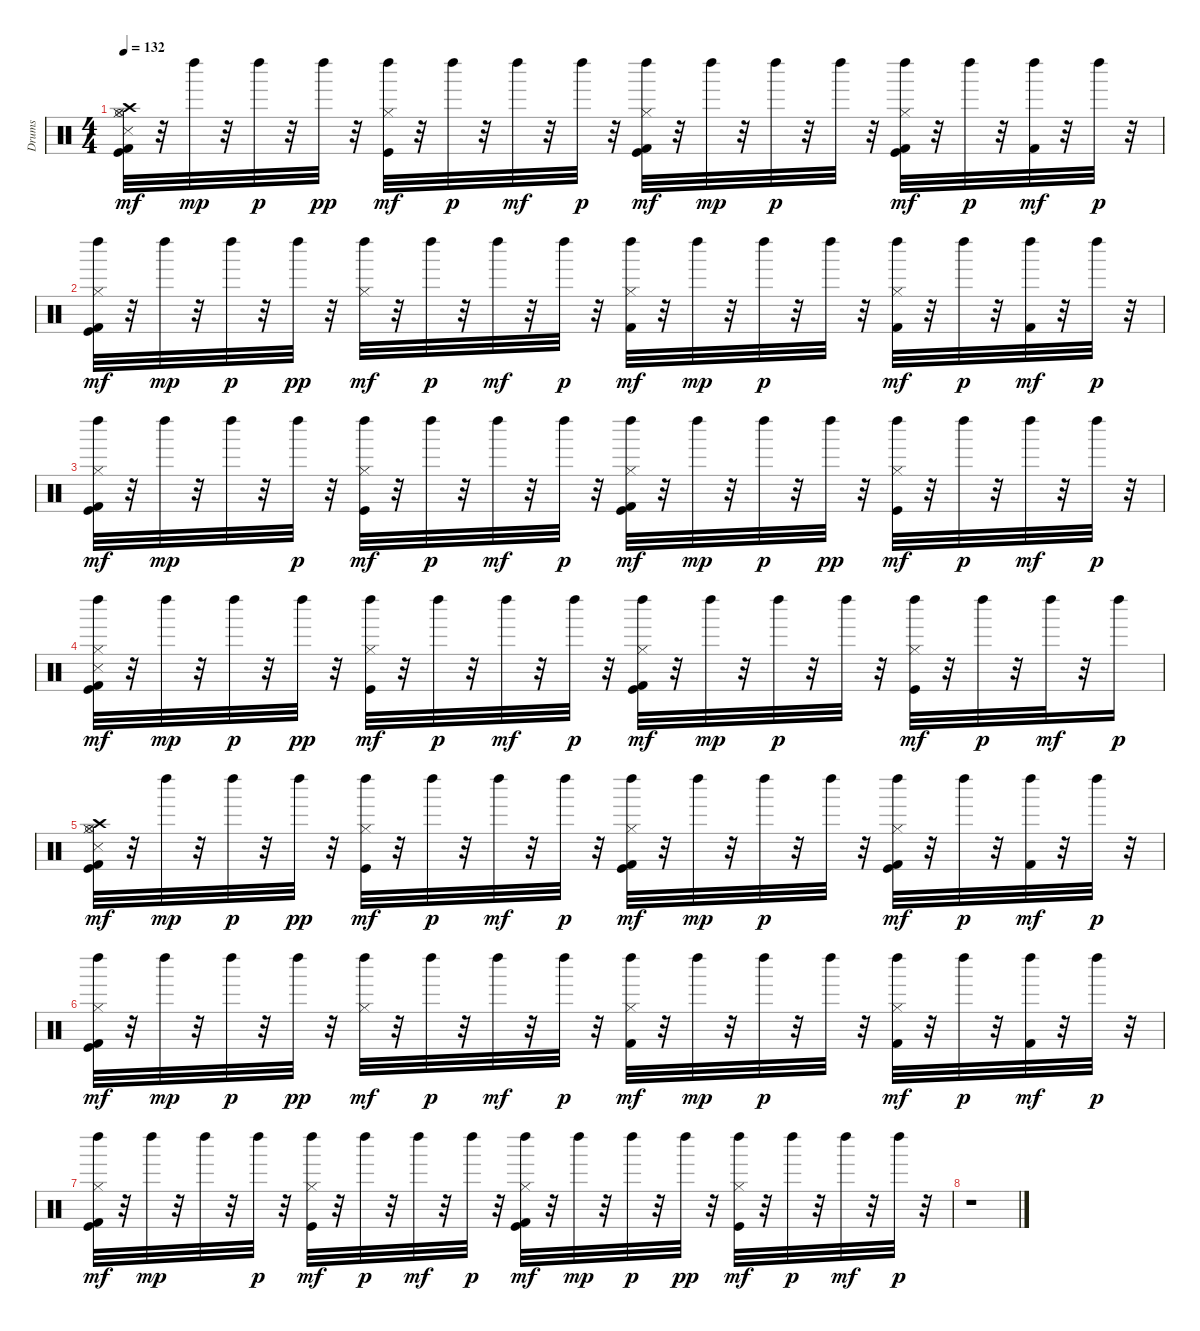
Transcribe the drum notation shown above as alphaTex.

\track ("Drums" "Drums") {instrument percussion}
\staff {score}
\articulation defaults
\ts (4 4)
\tempo 132
\clef neutral
\ks c
("Kick (hit)" "Kick (hit) 2" "Snare (side stick) 3" "Hi-Hat (closed)" "Hi-Hat (open)" "Crash high (hit)").32{dy mf} r.32 "Left Maraca (hit)".32{dy mp} r.32 "Left Maraca (hit)".32{dy p} r.32 "Left Maraca (hit)".32{dy pp} r.32 ("Kick (hit)" "Hi-Hat (closed)" "Left Maraca (hit)").32{dy mf} r.32 "Left Maraca (hit)".32{dy p} r.32 "Left Maraca (hit)".32{dy mf} r.32 "Left Maraca (hit)".32{dy p} r.32 ("Kick (hit)" "Kick (hit) 2" "Hi-Hat (closed)" "Left Maraca (hit)").32{dy mf} r.32 "Left Maraca (hit)".32{dy mp} r.32 "Left Maraca (hit)".32{dy p} r.32 "Left Maraca (hit)".32 r.32 ("Kick (hit)" "Kick (hit) 2" "Hi-Hat (closed)" "Left Maraca (hit)").32{dy mf} r.32 "Left Maraca (hit)".32{dy p} r.32 ("Kick (hit) 2" "Left Maraca (hit)").32{dy mf} r.32 "Left Maraca (hit)".32{dy p} r.32 |
("Kick (hit)" "Kick (hit) 2" "Hi-Hat (closed)" "Left Maraca (hit)").32{dy mf} r.32 "Left Maraca (hit)".32{dy mp} r.32 "Left Maraca (hit)".32{dy p} r.32 "Left Maraca (hit)".32{dy pp} r.32 ("Hi-Hat (closed)" "Left Maraca (hit)").32{dy mf} r.32 "Left Maraca (hit)".32{dy p} r.32 "Left Maraca (hit)".32{dy mf} r.32 "Left Maraca (hit)".32{dy p} r.32 ("Kick (hit) 2" "Hi-Hat (closed)" "Left Maraca (hit)").32{dy mf} r.32 "Left Maraca (hit)".32{dy mp} r.32 "Left Maraca (hit)".32{dy p} r.32 "Left Maraca (hit)".32 r.32 ("Kick (hit) 2" "Hi-Hat (closed)" "Left Maraca (hit)").32{dy mf} r.32 "Left Maraca (hit)".32{dy p} r.32 ("Kick (hit) 2" "Left Maraca (hit)").32{dy mf} r.32 "Left Maraca (hit)".32{dy p} r.32 |
("Kick (hit)" "Kick (hit) 2" "Hi-Hat (closed)" "Left Maraca (hit)").32{dy mf} r.32 "Left Maraca (hit)".32{dy mp} r.32 "Left Maraca (hit)".32 r.32 "Left Maraca (hit)".32{dy p} r.32 ("Kick (hit)" "Hi-Hat (closed)" "Left Maraca (hit)").32{dy mf} r.32 "Left Maraca (hit)".32{dy p} r.32 "Left Maraca (hit)".32{dy mf} r.32 "Left Maraca (hit)".32{dy p} r.32 ("Kick (hit)" "Kick (hit) 2" "Hi-Hat (closed)" "Left Maraca (hit)").32{dy mf} r.32 "Left Maraca (hit)".32{dy mp} r.32 "Left Maraca (hit)".32{dy p} r.32 "Left Maraca (hit)".32{dy pp} r.32 ("Kick (hit)" "Hi-Hat (closed)" "Left Maraca (hit)").32{dy mf} r.32 "Left Maraca (hit)".32{dy p} r.32 "Left Maraca (hit)".32{dy mf} r.32 "Left Maraca (hit)".32{dy p} r.32 |
("Kick (hit)" "Kick (hit) 2" "Snare (side stick) 3" "Hi-Hat (closed)" "Left Maraca (hit)").32{dy mf} r.32 "Left Maraca (hit)".32{dy mp} r.32 "Left Maraca (hit)".32{dy p} r.32 "Left Maraca (hit)".32{dy pp} r.32 ("Kick (hit)" "Hi-Hat (closed)" "Left Maraca (hit)").32{dy mf} r.32 "Left Maraca (hit)".32{dy p} r.32 "Left Maraca (hit)".32{dy mf} r.32 "Left Maraca (hit)".32{dy p} r.32 ("Kick (hit)" "Kick (hit) 2" "Hi-Hat (closed)" "Left Maraca (hit)").32{dy mf} r.32 "Left Maraca (hit)".32{dy mp} r.32 "Left Maraca (hit)".32{dy p} r.32 "Left Maraca (hit)".32 r.32 ("Kick (hit)" "Hi-Hat (closed)" "Left Maraca (hit)").32{dy mf} r.32 "Left Maraca (hit)".32{dy p} r.32 "Left Maraca (hit)".32{dy mf} r.32 "Left Maraca (hit)".16{dy p} |
("Kick (hit)" "Kick (hit) 2" "Snare (side stick) 3" "Hi-Hat (closed)" "Hi-Hat (open)" "Crash high (hit)").32{dy mf} r.32 "Left Maraca (hit)".32{dy mp} r.32 "Left Maraca (hit)".32{dy p} r.32 "Left Maraca (hit)".32{dy pp} r.32 ("Kick (hit)" "Hi-Hat (closed)" "Left Maraca (hit)").32{dy mf} r.32 "Left Maraca (hit)".32{dy p} r.32 "Left Maraca (hit)".32{dy mf} r.32 "Left Maraca (hit)".32{dy p} r.32 ("Kick (hit)" "Kick (hit) 2" "Hi-Hat (closed)" "Left Maraca (hit)").32{dy mf} r.32 "Left Maraca (hit)".32{dy mp} r.32 "Left Maraca (hit)".32{dy p} r.32 "Left Maraca (hit)".32 r.32 ("Kick (hit)" "Kick (hit) 2" "Hi-Hat (closed)" "Left Maraca (hit)").32{dy mf} r.32 "Left Maraca (hit)".32{dy p} r.32 ("Kick (hit) 2" "Left Maraca (hit)").32{dy mf} r.32 "Left Maraca (hit)".32{dy p} r.32 |
("Kick (hit)" "Kick (hit) 2" "Hi-Hat (closed)" "Left Maraca (hit)").32{dy mf} r.32 "Left Maraca (hit)".32{dy mp} r.32 "Left Maraca (hit)".32{dy p} r.32 "Left Maraca (hit)".32{dy pp} r.32 ("Hi-Hat (closed)" "Left Maraca (hit)").32{dy mf} r.32 "Left Maraca (hit)".32{dy p} r.32 "Left Maraca (hit)".32{dy mf} r.32 "Left Maraca (hit)".32{dy p} r.32 ("Kick (hit) 2" "Hi-Hat (closed)" "Left Maraca (hit)").32{dy mf} r.32 "Left Maraca (hit)".32{dy mp} r.32 "Left Maraca (hit)".32{dy p} r.32 "Left Maraca (hit)".32 r.32 ("Kick (hit) 2" "Hi-Hat (closed)" "Left Maraca (hit)").32{dy mf} r.32 "Left Maraca (hit)".32{dy p} r.32 ("Kick (hit) 2" "Left Maraca (hit)").32{dy mf} r.32 "Left Maraca (hit)".32{dy p} r.32 |
("Kick (hit)" "Kick (hit) 2" "Hi-Hat (closed)" "Left Maraca (hit)").32{dy mf} r.32 "Left Maraca (hit)".32{dy mp} r.32 "Left Maraca (hit)".32 r.32 "Left Maraca (hit)".32{dy p} r.32 ("Kick (hit)" "Hi-Hat (closed)" "Left Maraca (hit)").32{dy mf} r.32 "Left Maraca (hit)".32{dy p} r.32 "Left Maraca (hit)".32{dy mf} r.32 "Left Maraca (hit)".32{dy p} r.32 ("Kick (hit)" "Kick (hit) 2" "Hi-Hat (closed)" "Left Maraca (hit)").32{dy mf} r.32 "Left Maraca (hit)".32{dy mp} r.32 "Left Maraca (hit)".32{dy p} r.32 "Left Maraca (hit)".32{dy pp} r.32 ("Kick (hit)" "Hi-Hat (closed)" "Left Maraca (hit)").32{dy mf} r.32 "Left Maraca (hit)".32{dy p} r.32 "Left Maraca (hit)".32{dy mf} r.32 "Left Maraca (hit)".32{dy p} r.32 |
r.1
